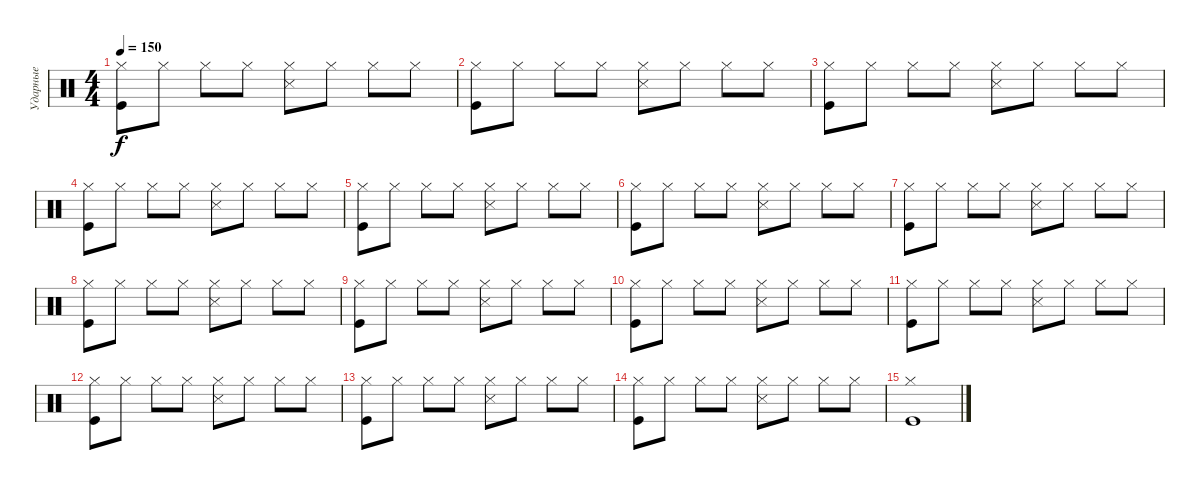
\track ("Ударные" "Ударные") {instrument percussion}
\staff {score}
\articulation defaults
\ts (4 4)
\tempo 150
\clef neutral
\ks c
("Hi-Hat (closed)" "Kick (hit)").8{dy f} "Hi-Hat (closed)".8 "Hi-Hat (closed)".8 "Hi-Hat (closed)".8 ("Hi-Hat (closed)" "Metronome (hit)").8 "Hi-Hat (closed)".8 "Hi-Hat (closed)".8 "Hi-Hat (closed)".8 |
("Hi-Hat (closed)" "Kick (hit)").8 "Hi-Hat (closed)".8 "Hi-Hat (closed)".8 "Hi-Hat (closed)".8 ("Hi-Hat (closed)" "Metronome (hit)").8 "Hi-Hat (closed)".8 "Hi-Hat (closed)".8 "Hi-Hat (closed)".8 |
("Hi-Hat (closed)" "Kick (hit)").8 "Hi-Hat (closed)".8 "Hi-Hat (closed)".8 "Hi-Hat (closed)".8 ("Hi-Hat (closed)" "Metronome (hit)").8 "Hi-Hat (closed)".8 "Hi-Hat (closed)".8 "Hi-Hat (closed)".8 |
("Hi-Hat (closed)" "Kick (hit)").8 "Hi-Hat (closed)".8 "Hi-Hat (closed)".8 "Hi-Hat (closed)".8 ("Hi-Hat (closed)" "Metronome (hit)").8 "Hi-Hat (closed)".8 "Hi-Hat (closed)".8 "Hi-Hat (closed)".8 |
("Hi-Hat (closed)" "Kick (hit)").8 "Hi-Hat (closed)".8 "Hi-Hat (closed)".8 "Hi-Hat (closed)".8 ("Hi-Hat (closed)" "Metronome (hit)").8 "Hi-Hat (closed)".8 "Hi-Hat (closed)".8 "Hi-Hat (closed)".8 |
("Hi-Hat (closed)" "Kick (hit)").8 "Hi-Hat (closed)".8 "Hi-Hat (closed)".8 "Hi-Hat (closed)".8 ("Hi-Hat (closed)" "Metronome (hit)").8 "Hi-Hat (closed)".8 "Hi-Hat (closed)".8 "Hi-Hat (closed)".8 |
("Hi-Hat (closed)" "Kick (hit)").8 "Hi-Hat (closed)".8 "Hi-Hat (closed)".8 "Hi-Hat (closed)".8 ("Hi-Hat (closed)" "Metronome (hit)").8 "Hi-Hat (closed)".8 "Hi-Hat (closed)".8 "Hi-Hat (closed)".8 |
("Hi-Hat (closed)" "Kick (hit)").8 "Hi-Hat (closed)".8 "Hi-Hat (closed)".8 "Hi-Hat (closed)".8 ("Hi-Hat (closed)" "Metronome (hit)").8 "Hi-Hat (closed)".8 "Hi-Hat (closed)".8 "Hi-Hat (closed)".8 |
("Hi-Hat (closed)" "Kick (hit)").8 "Hi-Hat (closed)".8 "Hi-Hat (closed)".8 "Hi-Hat (closed)".8 ("Hi-Hat (closed)" "Metronome (hit)").8 "Hi-Hat (closed)".8 "Hi-Hat (closed)".8 "Hi-Hat (closed)".8 |
("Hi-Hat (closed)" "Kick (hit)").8 "Hi-Hat (closed)".8 "Hi-Hat (closed)".8 "Hi-Hat (closed)".8 ("Hi-Hat (closed)" "Metronome (hit)").8 "Hi-Hat (closed)".8 "Hi-Hat (closed)".8 "Hi-Hat (closed)".8 |
("Hi-Hat (closed)" "Kick (hit)").8 "Hi-Hat (closed)".8 "Hi-Hat (closed)".8 "Hi-Hat (closed)".8 ("Hi-Hat (closed)" "Metronome (hit)").8 "Hi-Hat (closed)".8 "Hi-Hat (closed)".8 "Hi-Hat (closed)".8 |
("Hi-Hat (closed)" "Kick (hit)").8 "Hi-Hat (closed)".8 "Hi-Hat (closed)".8 "Hi-Hat (closed)".8 ("Hi-Hat (closed)" "Metronome (hit)").8 "Hi-Hat (closed)".8 "Hi-Hat (closed)".8 "Hi-Hat (closed)".8 |
("Hi-Hat (closed)" "Kick (hit)").8 "Hi-Hat (closed)".8 "Hi-Hat (closed)".8 "Hi-Hat (closed)".8 ("Hi-Hat (closed)" "Metronome (hit)").8 "Hi-Hat (closed)".8 "Hi-Hat (closed)".8 "Hi-Hat (closed)".8 |
("Hi-Hat (closed)" "Kick (hit)").8 "Hi-Hat (closed)".8 "Hi-Hat (closed)".8 "Hi-Hat (closed)".8 ("Hi-Hat (closed)" "Metronome (hit)").8 "Hi-Hat (closed)".8 "Hi-Hat (closed)".8 "Hi-Hat (closed)".8 |
("Hi-Hat (closed)" "Kick (hit)").1
